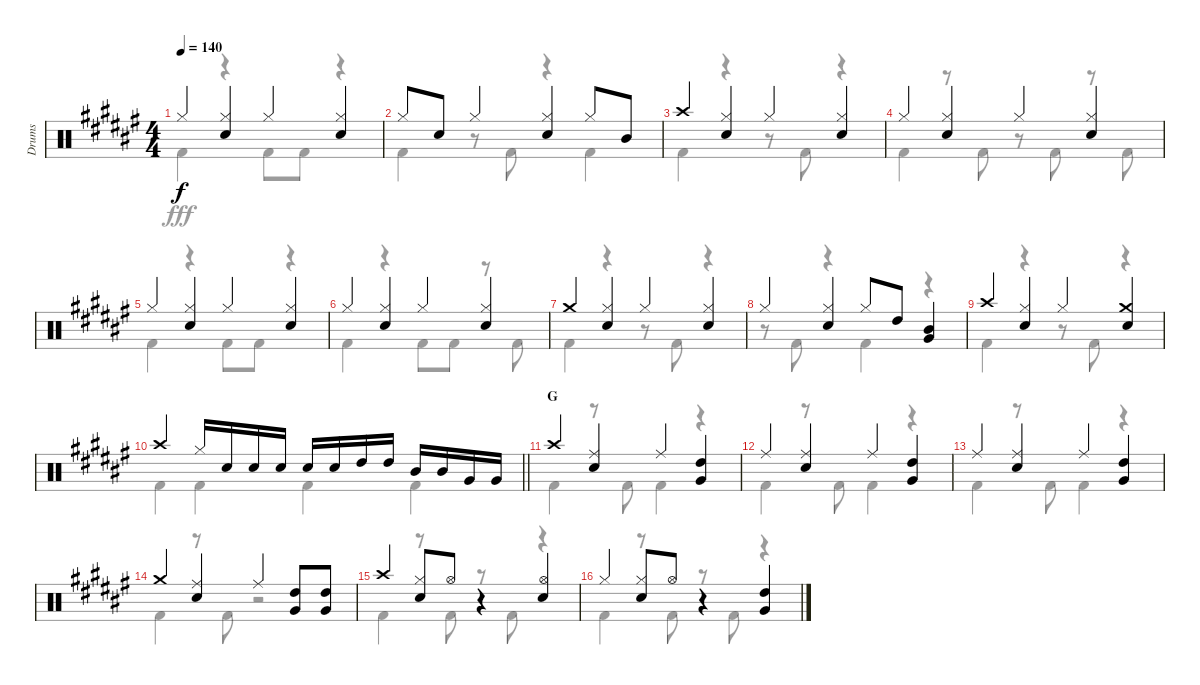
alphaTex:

\track ("Drums" "Drums") {instrument percussion}
\staff {score}
\articulation defaults
\voice
\ts (4 4)
\tempo 140
\clef neutral
\ks f# "Hi-Hat (closed)".4{dy f}
("Hi-Hat (closed)" "Snare (hit) 2").4 "Hi-Hat (closed)".4 ("Hi-Hat (closed)" "Snare (hit) 2").4 |
"Hi-Hat (closed)".8 "Snare (hit) 2".8 "Hi-Hat (closed)".4 ("Hi-Hat (closed)" "Snare (hit) 2").4 "Hi-Hat (closed)".8 "Mid Tom (hit)".8 |
"Crash high (hit)".4 ("Hi-Hat (closed)" "Snare (hit) 2").4 "Hi-Hat (closed)".4 ("Hi-Hat (closed)" "Snare (hit) 2").4 |
"Hi-Hat (closed)".4 ("Hi-Hat (closed)" "Snare (hit) 2").4 "Hi-Hat (closed)".4 ("Hi-Hat (closed)" "Snare (hit) 2").4 |
"Hi-Hat (closed)".4 ("Hi-Hat (closed)" "Snare (hit) 2").4 "Hi-Hat (closed)".4 ("Hi-Hat (closed)" "Snare (hit) 2").4 |
"Hi-Hat (closed)".4 ("Hi-Hat (closed)" "Snare (hit) 2").4 "Hi-Hat (closed)".4 ("Hi-Hat (closed)" "Snare (hit) 2").4 |
"Crash medium (hit)".4 ("Hi-Hat (closed)" "Snare (hit) 2").4 "Hi-Hat (closed)".4 ("Hi-Hat (closed)" "Snare (hit) 2").4 |
"Hi-Hat (closed)".4 ("Hi-Hat (closed)" "Snare (hit) 2").4 "Hi-Hat (closed)".8 "High Tom (hit)".8 ("Mid Tom (hit)" "Very Low Tom (hit)").4 |
"Crash high (hit)".4 ("Hi-Hat (closed)" "Snare (hit) 2").4 "Hi-Hat (closed)".4 ("Crash medium (hit)" "Snare (hit) 2").4 |
\barLineRight lightlight "Crash high (hit)".4 "Hi-Hat (closed)".16 "Snare (hit) 2".16 "Snare (hit) 2".16 "Snare (hit) 2".16 "Snare (hit) 2".16 "Snare (hit) 2".16 "High Tom (hit)".16 "High Tom (hit)".16 "Mid Tom (hit)".16 "Mid Tom (hit)".16 "Very Low Tom (hit)".16 "Very Low Tom (hit)".16
|
\section ("" "G")
"Crash high (hit)".4 ("Ride (middle)" "Snare (hit) 2").4 "Ride (middle)".4 ("High Tom (hit)" "Very Low Tom (hit)").4 |
"Ride (middle)".4 ("Ride (middle)" "Snare (hit) 2").4 "Ride (middle)".4 ("High Tom (hit)" "Very Low Tom (hit)").4 |
"Ride (middle)".4 ("Ride (middle)" "Snare (hit) 2").4 "Ride (middle)".4 ("High Tom (hit)" "Very Low Tom (hit)").4 |
"Crash medium (hit)".4 ("Ride (middle)" "Snare (hit) 2").4 "Ride (middle)".4 ("High Tom (hit)" "Very Low Tom (hit)").8 ("High Tom (hit)" "Very Low Tom (hit)").8 |
"Crash high (hit)".4 ("Hi-Hat (closed)" "Snare (hit) 2").8 "Hi-Hat (open)".8 r.4 ("Hi-Hat (open)" "Snare (hit) 2").4 |
"Hi-Hat (closed)".4 ("Hi-Hat (closed)" "Snare (hit) 2").8 "Hi-Hat (open)".8 r.4 ("High Tom (hit)" "Very Low Tom (hit)").4
\voice
\clef neutral
\ottava regular
\simile none
\ks f# "Kick (hit) 2".4{dy fff}
r.4 "Kick (hit) 2".8 "Kick (hit) 2".8 r.4 |
"Kick (hit) 2".4 r.8 "Kick (hit) 2".8 r.4 "Kick (hit) 2".4 |
"Kick (hit) 2".4 r.4 r.8 "Kick (hit) 2".8 r.4 |
"Kick (hit) 2".4 r.8 "Kick (hit) 2".8 r.8 "Kick (hit) 2".8 r.8 "Kick (hit) 2".8 |
"Kick (hit) 2".4 r.4 "Kick (hit) 2".8 "Kick (hit) 2".8 r.4 |
"Kick (hit) 2".4 r.4 "Kick (hit) 2".8 "Kick (hit) 2".8 r.8 "Kick (hit) 2".8 |
"Kick (hit) 2".4 r.4 r.8 "Kick (hit) 2".8 r.4 |
r.8 "Kick (hit) 2".8 r.4 "Kick (hit) 2".4 r.4 |
"Kick (hit) 2".4 r.4 r.8 "Kick (hit) 2".8 r.4 |
\barLineRight lightlight "Kick (hit) 2".4 "Kick (hit) 2".4 "Kick (hit) 2".4 "Kick (hit) 2".4
|
"Kick (hit) 2".4 r.8 "Kick (hit) 2".8 "Kick (hit) 2".4 r.4 |
"Kick (hit) 2".4 r.8 "Kick (hit) 2".8 "Kick (hit) 2".4 r.4 |
"Kick (hit) 2".4 r.8 "Kick (hit) 2".8 "Kick (hit) 2".4 r.4 |
"Kick (hit) 2".4 r.8 "Kick (hit) 2".8 r.2 |
"Kick (hit) 2".4 r.8 "Kick (hit) 2".8 r.8 "Kick (hit) 2".8 r.4 |
"Kick (hit) 2".4 r.8 "Kick (hit) 2".8 r.8 "Kick (hit) 2".8 r.4
